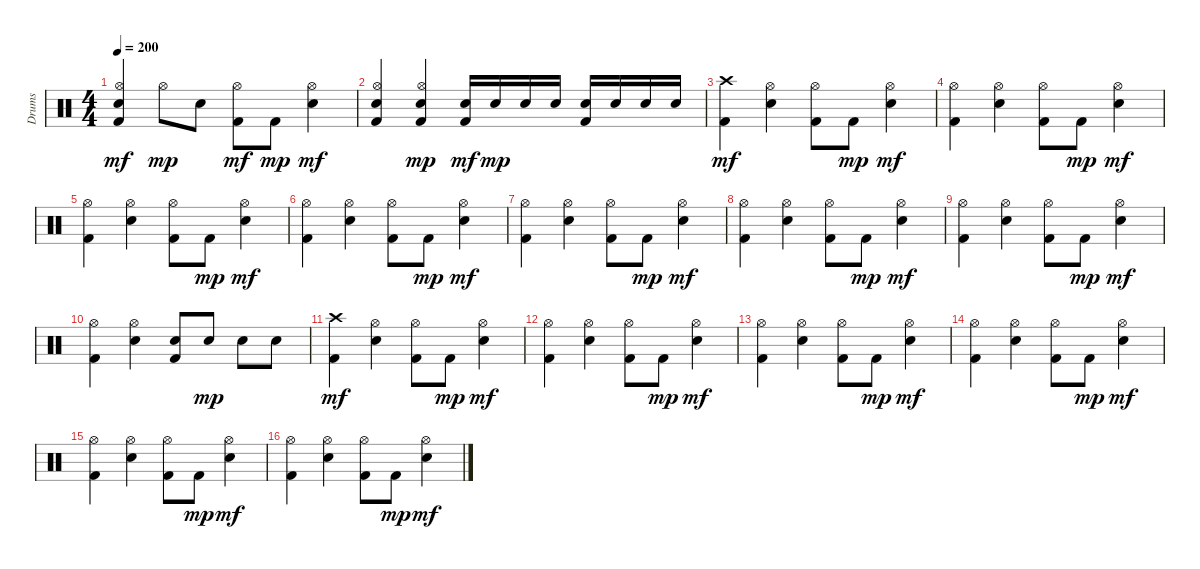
\track ("Drums" "Drums") {instrument percussion}
\staff {score}
\articulation defaults
\ts (4 4)
\tempo 200
\clef neutral
\ks c
("Snare (hit) 2" "Hi-Hat (open)" "Kick (hit) 2").4{dy mf} "Hi-Hat (open)".8{dy mp} "Snare (hit) 2".8 ("Hi-Hat (open)" "Kick (hit) 2").8{dy mf} "Kick (hit) 2".8{dy mp} ("Snare (hit) 2" "Hi-Hat (open)").4{dy mf} |
("Snare (hit) 2" "Hi-Hat (open)" "Kick (hit) 2").4 ("Snare (hit) 2" "Hi-Hat (open)" "Kick (hit) 2").4{dy mp} ("Snare (hit) 2" "Kick (hit) 2").16{dy mf} "Snare (hit) 2".16{dy mp} "Snare (hit) 2".16 "Snare (hit) 2".16 ("Snare (hit) 2" "Kick (hit) 2").16 "Snare (hit) 2".16 "Snare (hit) 2".16 "Snare (hit) 2".16 |
("Crash high (hit)" "Kick (hit) 2").4{dy mf} ("Snare (hit) 2" "Hi-Hat (open)").4 ("Hi-Hat (open)" "Kick (hit) 2").8 "Kick (hit) 2".8{dy mp} ("Snare (hit) 2" "Hi-Hat (open)").4{dy mf} |
("Hi-Hat (open)" "Kick (hit) 2").4 ("Snare (hit) 2" "Hi-Hat (open)").4 ("Hi-Hat (open)" "Kick (hit) 2").8 "Kick (hit) 2".8{dy mp} ("Snare (hit) 2" "Hi-Hat (open)").4{dy mf} |
("Hi-Hat (open)" "Kick (hit) 2").4 ("Snare (hit) 2" "Hi-Hat (open)").4 ("Hi-Hat (open)" "Kick (hit) 2").8 "Kick (hit) 2".8{dy mp} ("Snare (hit) 2" "Hi-Hat (open)").4{dy mf} |
("Hi-Hat (open)" "Kick (hit) 2").4 ("Snare (hit) 2" "Hi-Hat (open)").4 ("Hi-Hat (open)" "Kick (hit) 2").8 "Kick (hit) 2".8{dy mp} ("Snare (hit) 2" "Hi-Hat (open)").4{dy mf} |
("Hi-Hat (open)" "Kick (hit) 2").4 ("Snare (hit) 2" "Hi-Hat (open)").4 ("Hi-Hat (open)" "Kick (hit) 2").8 "Kick (hit) 2".8{dy mp} ("Snare (hit) 2" "Hi-Hat (open)").4{dy mf} |
("Hi-Hat (open)" "Kick (hit) 2").4 ("Snare (hit) 2" "Hi-Hat (open)").4 ("Hi-Hat (open)" "Kick (hit) 2").8 "Kick (hit) 2".8{dy mp} ("Snare (hit) 2" "Hi-Hat (open)").4{dy mf} |
("Hi-Hat (open)" "Kick (hit) 2").4 ("Snare (hit) 2" "Hi-Hat (open)").4 ("Hi-Hat (open)" "Kick (hit) 2").8 "Kick (hit) 2".8{dy mp} ("Snare (hit) 2" "Hi-Hat (open)").4{dy mf} |
("Hi-Hat (open)" "Kick (hit) 2").4 ("Snare (hit) 2" "Hi-Hat (open)").4 ("Snare (hit) 2" "Kick (hit) 2").8 "Snare (hit) 2".8{dy mp} "Snare (hit) 2".8 "Snare (hit) 2".8 |
("Crash high (hit)" "Kick (hit) 2").4{dy mf} ("Snare (hit) 2" "Hi-Hat (open)").4 ("Hi-Hat (open)" "Kick (hit) 2").8 "Kick (hit) 2".8{dy mp} ("Snare (hit) 2" "Hi-Hat (open)").4{dy mf} |
("Hi-Hat (open)" "Kick (hit) 2").4 ("Snare (hit) 2" "Hi-Hat (open)").4 ("Hi-Hat (open)" "Kick (hit) 2").8 "Kick (hit) 2".8{dy mp} ("Snare (hit) 2" "Hi-Hat (open)").4{dy mf} |
("Hi-Hat (open)" "Kick (hit) 2").4 ("Snare (hit) 2" "Hi-Hat (open)").4 ("Hi-Hat (open)" "Kick (hit) 2").8 "Kick (hit) 2".8{dy mp} ("Snare (hit) 2" "Hi-Hat (open)").4{dy mf} |
("Hi-Hat (open)" "Kick (hit) 2").4 ("Snare (hit) 2" "Hi-Hat (open)").4 ("Hi-Hat (open)" "Kick (hit) 2").8 "Kick (hit) 2".8{dy mp} ("Snare (hit) 2" "Hi-Hat (open)").4{dy mf} |
("Hi-Hat (open)" "Kick (hit) 2").4 ("Snare (hit) 2" "Hi-Hat (open)").4 ("Hi-Hat (open)" "Kick (hit) 2").8 "Kick (hit) 2".8{dy mp} ("Snare (hit) 2" "Hi-Hat (open)").4{dy mf} |
("Hi-Hat (open)" "Kick (hit) 2").4 ("Snare (hit) 2" "Hi-Hat (open)").4 ("Hi-Hat (open)" "Kick (hit) 2").8 "Kick (hit) 2".8{dy mp} ("Snare (hit) 2" "Hi-Hat (open)").4{dy mf}
